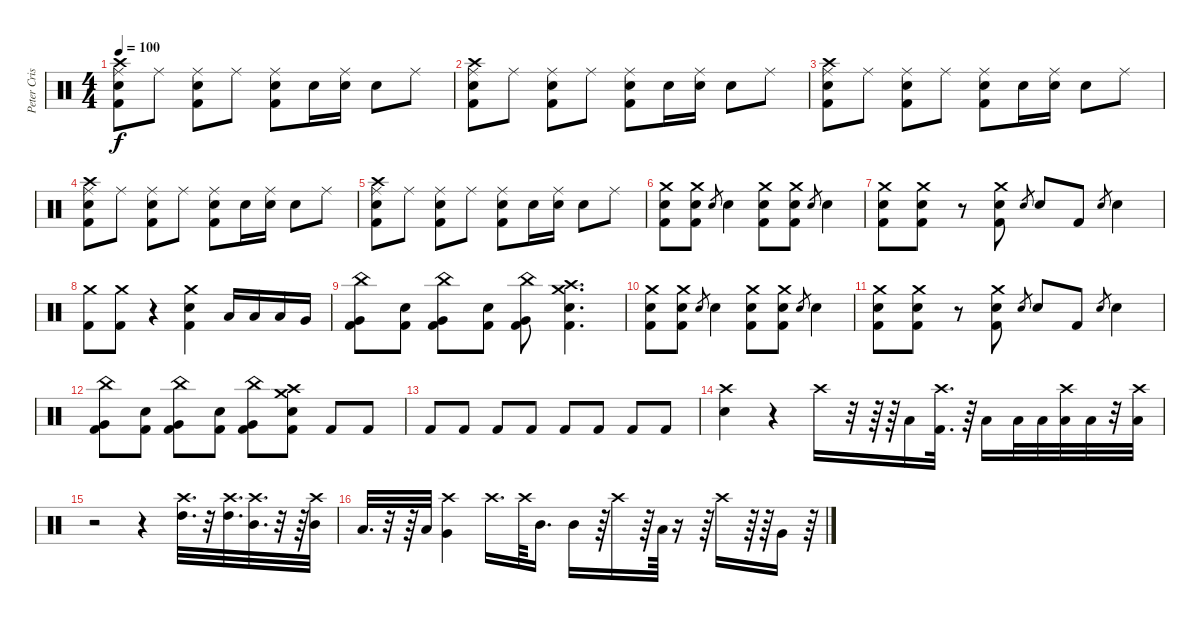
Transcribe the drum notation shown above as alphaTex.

\track ("Peter Criss" "Peter Cris") {instrument percussion}
\staff {score}
\articulation defaults
\ts (4 4)
\tempo 100
\clef neutral
\ks c
("Ride (middle)" "Crash high (hit)" "Snare (hit) 2" "Kick (hit) 2").8{dy f} "Ride (middle)".8 ("Ride (middle)" "Snare (hit) 2" "Kick (hit) 2").8 "Ride (middle)".8 ("Ride (middle)" "Snare (hit) 2" "Kick (hit) 2").8 "Snare (hit) 2".16 ("Ride (middle)" "Snare (hit) 2").16 "Snare (hit) 2".8 "Ride (middle)".8 |
("Ride (middle)" "Crash high (hit)" "Snare (hit) 2" "Kick (hit) 2").8 "Ride (middle)".8 ("Ride (middle)" "Snare (hit) 2" "Kick (hit) 2").8 "Ride (middle)".8 ("Ride (middle)" "Snare (hit) 2" "Kick (hit) 2").8 "Snare (hit) 2".16 ("Ride (middle)" "Snare (hit) 2").16 "Snare (hit) 2".8 "Ride (middle)".8 |
("Ride (middle)" "Crash high (hit)" "Snare (hit) 2" "Kick (hit) 2").8 "Ride (middle)".8 ("Ride (middle)" "Snare (hit) 2" "Kick (hit) 2").8 "Ride (middle)".8 ("Ride (middle)" "Snare (hit) 2" "Kick (hit) 2").8 "Snare (hit) 2".16 ("Ride (middle)" "Snare (hit) 2").16 "Snare (hit) 2".8 "Ride (middle)".8 |
("Ride (middle)" "Crash high (hit)" "Snare (hit) 2" "Kick (hit) 2").8 "Ride (middle)".8 ("Ride (middle)" "Snare (hit) 2" "Kick (hit) 2").8 "Ride (middle)".8 ("Ride (middle)" "Snare (hit) 2" "Kick (hit) 2").8 "Snare (hit) 2".16 ("Ride (middle)" "Snare (hit) 2").16 "Snare (hit) 2".8 "Ride (middle)".8 |
("Ride (middle)" "Crash high (hit)" "Snare (hit) 2" "Kick (hit) 2").8 "Ride (middle)".8 ("Ride (middle)" "Snare (hit) 2" "Kick (hit) 2").8 "Ride (middle)".8 ("Ride (middle)" "Snare (hit) 2" "Kick (hit) 2").8 "Snare (hit) 2".16 ("Ride (middle)" "Snare (hit) 2").16 "Snare (hit) 2".8 "Ride (middle)".8 |
("Crash medium (hit)" "Snare (hit) 2" "Kick (hit) 2").8 ("Crash medium (hit)" "Snare (hit) 2" "Kick (hit) 2").8 "Electric Snare (hit)".8{gr} "Electric Snare (hit)".4 ("Crash medium (hit)" "Snare (hit) 2" "Kick (hit) 2").8 ("Crash medium (hit)" "Snare (hit) 2" "Kick (hit) 2").8 "Electric Snare (hit)".8{gr} "Electric Snare (hit)".4 |
("Crash medium (hit)" "Snare (hit) 2" "Kick (hit) 2").8 ("Crash medium (hit)" "Snare (hit) 2" "Kick (hit) 2").8 r.8 ("Crash medium (hit)" "Snare (hit) 2" "Kick (hit) 2").8 "Electric Snare (hit)".8{gr} "Electric Snare (hit)".8 "Kick (hit) 2".8 "Electric Snare (hit)".8{gr} "Electric Snare (hit)".4 |
("Kick (hit) 2" "Crash medium (hit)").8 ("Kick (hit) 2" "Crash medium (hit)").8 r.4 ("Crash medium (hit)" "Snare (hit) 2" "Kick (hit) 2").4 "Low Tom (hit)".16 "Low Tom (hit)".16 "Low Tom (hit)".16 "Very Low Tom (hit)".16 |
("Very Low Tom (hit)" "China (hit)" "Kick (hit) 2").8 ("Kick (hit) 2" "Snare (hit) 2").8 ("Very Low Tom (hit)" "China (hit)" "Kick (hit) 2").8 ("Kick (hit) 2" "Snare (hit) 2").8 ("Very Low Tom (hit)" "China (hit)" "Kick (hit) 2").8 ("Crash medium (hit)" "Crash high (hit)" "Kick (hit) 2" "Snare (hit) 2").4{d} |
("Crash medium (hit)" "Snare (hit) 2" "Kick (hit) 2").8 ("Crash medium (hit)" "Snare (hit) 2" "Kick (hit) 2").8 "Electric Snare (hit)".8{gr} "Electric Snare (hit)".4 ("Crash medium (hit)" "Snare (hit) 2" "Kick (hit) 2").8 ("Crash medium (hit)" "Snare (hit) 2" "Kick (hit) 2").8 "Electric Snare (hit)".8{gr} "Electric Snare (hit)".4 |
("Crash medium (hit)" "Snare (hit) 2" "Kick (hit) 2").8 ("Crash medium (hit)" "Snare (hit) 2" "Kick (hit) 2").8 r.8 ("Crash medium (hit)" "Snare (hit) 2" "Kick (hit) 2").8 "Electric Snare (hit)".8{gr} "Electric Snare (hit)".8 "Kick (hit) 2".8 "Electric Snare (hit)".8{gr} "Electric Snare (hit)".4 |
("Very Low Tom (hit)" "China (hit)" "Kick (hit) 2").8 ("Kick (hit) 2" "Snare (hit) 2").8 ("Very Low Tom (hit)" "China (hit)" "Kick (hit) 2").8 ("Kick (hit) 2" "Snare (hit) 2").8 ("Very Low Tom (hit)" "China (hit)" "Kick (hit) 2").8 ("Crash medium (hit)" "Crash high (hit)" "Kick (hit) 2" "Snare (hit) 2").8 "Kick (hit) 2".8 "Kick (hit) 2".8 |
"Kick (hit) 2".8 "Kick (hit) 2".8 "Kick (hit) 2".8 "Kick (hit) 2".8 "Kick (hit) 2".8 "Kick (hit) 2".8 "Kick (hit) 2".8 "Kick (hit) 2".8 |
("Electric Snare (hit)" "Crash high (hit)").4 r.4 "Crash high (hit)".16 r.32 r.64 r.64 "Low Tom (hit)".16 ("Kick (hit) 2" "Crash high (hit)").32{d} r.64 "Low Tom (hit)".16 "Low Tom (hit)".32 "Low Tom (hit)".32 ("Low Tom (hit)" "Crash high (hit)").32 "Low Tom (hit)".32 r.32 ("Low Tom (hit)" "Crash high (hit)").32 |
r.2 r.4 ("High Tom (hit)" "Crash high (hit)").32{d} r.32 ("High Tom (hit)" "Crash high (hit)").32{d} ("Mid Tom (hit)" "Crash high (hit)").32{d} r.32 r.64 ("Mid Tom (hit)" "Crash high (hit)").32 |
"Low Tom (hit)".32{d} r.32 r.64 "Low Tom (hit)".32 ("Very Low Tom (hit)" "Crash high (hit)").4 "Crash high (hit)".16{d} "Crash high (hit)".64 "Mid Tom (hit)".16{d} "Mid Tom (hit)".16 r.64 "Crash high (hit)".16 r.64 "Low Tom (hit)".64 r.16 r.64 "Crash high (hit)".16 r.64 r.64 "Very Low Tom (hit)".16 r.64
